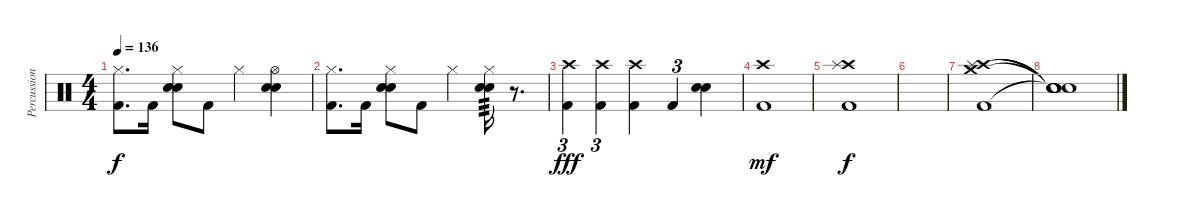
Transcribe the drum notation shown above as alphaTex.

\track ("Percussion" "Percussion") {instrument percussion}
\staff {score}
\articulation defaults
\ts (4 4)
\tempo 136
\clef neutral
\ks c
("Hi-Hat (closed)" "Kick (hit) 2").8{d dy f} "Kick (hit) 2".16 ("Hi-Hat (closed)" "Electric Snare (hit)" "Snare (hit) 2").8 "Kick (hit) 2".8 "Hi-Hat (closed)".4 ("Hi-Hat (open)" "Electric Snare (hit)" "Snare (hit) 2").4 |
("Hi-Hat (closed)" "Kick (hit) 2").8{d} "Kick (hit) 2".16 ("Hi-Hat (closed)" "Electric Snare (hit)" "Snare (hit) 2").8 "Kick (hit) 2".8 "Hi-Hat (closed)".4 ("Hi-Hat (closed)" "Electric Snare (hit)" "Snare (hit) 2").16{tp 3} r.8{d} |
("Crash high (hit)" "Kick (hit) 2").4{tu (3 2) dy fff} ("Crash high (hit)" "Kick (hit) 2").4{tu (3 2)} ("Crash high (hit)" "Kick (hit) 2").4 "Kick (hit) 2".4{tu (3 2)} ("Electric Snare (hit)" "Snare (hit) 2").4 |
("Crash high (hit)" "Kick (hit) 2").1{dy mf} |
("Crash high (hit)" "Kick (hit) 2" "Splash (hit)").1{dy f} |
|
("Crash high (hit)" "Kick (hit) 2" "Splash (hit)" "Crash medium (hit)").1 |
("Snare (hit)"{t} "Snare (hit)"{t} "Snare (hit)"{t} "Snare (hit)"{t} "Snare (hit)").1
